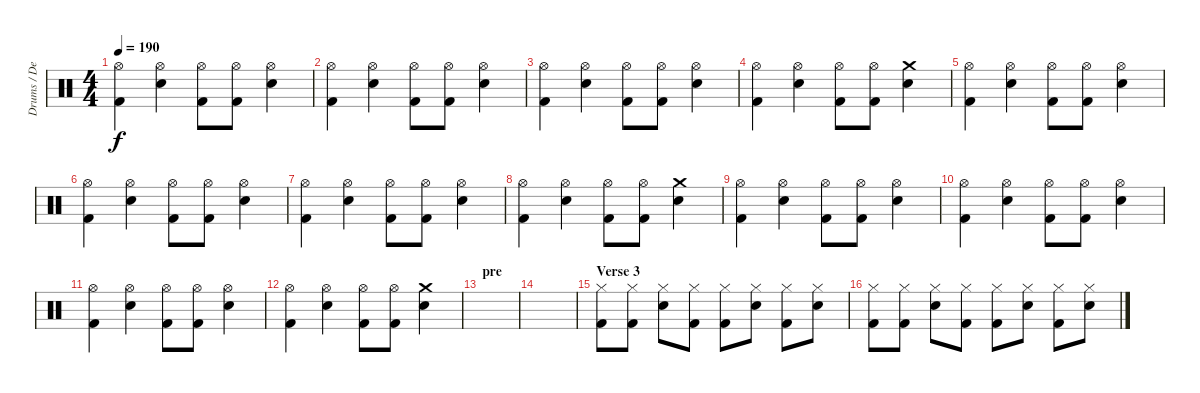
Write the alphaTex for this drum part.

\track ("Drums / Dennis" "Drums / De") {instrument percussion}
\staff {score}
\articulation defaults
\ts (4 4)
\tempo 190
\clef neutral
\ks c
("Kick (hit) 2" "Hi-Hat (open)").4{dy f} ("Snare (hit) 2" "Hi-Hat (open)").4 ("Kick (hit) 2" "Hi-Hat (open)").8 ("Kick (hit) 2" "Hi-Hat (open)").8 ("Snare (hit) 2" "Hi-Hat (open)").4 |
("Kick (hit) 2" "Hi-Hat (open)").4 ("Snare (hit) 2" "Hi-Hat (open)").4 ("Kick (hit) 2" "Hi-Hat (open)").8 ("Kick (hit) 2" "Hi-Hat (open)").8 ("Snare (hit) 2" "Hi-Hat (open)").4 |
("Kick (hit) 2" "Hi-Hat (open)").4 ("Snare (hit) 2" "Hi-Hat (open)").4 ("Kick (hit) 2" "Hi-Hat (open)").8 ("Kick (hit) 2" "Hi-Hat (open)").8 ("Snare (hit) 2" "Hi-Hat (open)").4 |
("Kick (hit) 2" "Hi-Hat (open)").4 ("Snare (hit) 2" "Hi-Hat (open)").4 ("Kick (hit) 2" "Hi-Hat (open)").8 ("Kick (hit) 2" "Hi-Hat (open)").8 ("Crash medium (hit)" "Snare (hit) 2").4 |
("Kick (hit) 2" "Hi-Hat (open)").4 ("Snare (hit) 2" "Hi-Hat (open)").4 ("Kick (hit) 2" "Hi-Hat (open)").8 ("Kick (hit) 2" "Hi-Hat (open)").8 ("Snare (hit) 2" "Hi-Hat (open)").4 |
("Kick (hit) 2" "Hi-Hat (open)").4 ("Snare (hit) 2" "Hi-Hat (open)").4 ("Kick (hit) 2" "Hi-Hat (open)").8 ("Kick (hit) 2" "Hi-Hat (open)").8 ("Snare (hit) 2" "Hi-Hat (open)").4 |
("Kick (hit) 2" "Hi-Hat (open)").4 ("Snare (hit) 2" "Hi-Hat (open)").4 ("Kick (hit) 2" "Hi-Hat (open)").8 ("Kick (hit) 2" "Hi-Hat (open)").8 ("Snare (hit) 2" "Hi-Hat (open)").4 |
("Kick (hit) 2" "Hi-Hat (open)").4 ("Snare (hit) 2" "Hi-Hat (open)").4 ("Kick (hit) 2" "Hi-Hat (open)").8 ("Kick (hit) 2" "Hi-Hat (open)").8 ("Crash medium (hit)" "Snare (hit) 2").4 |
("Kick (hit) 2" "Hi-Hat (open)").4 ("Snare (hit) 2" "Hi-Hat (open)").4 ("Kick (hit) 2" "Hi-Hat (open)").8 ("Kick (hit) 2" "Hi-Hat (open)").8 ("Snare (hit) 2" "Hi-Hat (open)").4 |
("Kick (hit) 2" "Hi-Hat (open)").4 ("Snare (hit) 2" "Hi-Hat (open)").4 ("Kick (hit) 2" "Hi-Hat (open)").8 ("Kick (hit) 2" "Hi-Hat (open)").8 ("Snare (hit) 2" "Hi-Hat (open)").4 |
("Kick (hit) 2" "Hi-Hat (open)").4 ("Snare (hit) 2" "Hi-Hat (open)").4 ("Kick (hit) 2" "Hi-Hat (open)").8 ("Kick (hit) 2" "Hi-Hat (open)").8 ("Snare (hit) 2" "Hi-Hat (open)").4 |
("Kick (hit) 2" "Hi-Hat (open)").4 ("Snare (hit) 2" "Hi-Hat (open)").4 ("Kick (hit) 2" "Hi-Hat (open)").8 ("Kick (hit) 2" "Hi-Hat (open)").8 ("Crash medium (hit)" "Snare (hit) 2").4 |
\section ("" "pre")
|
|
\section ("" "Verse 3")
("Kick (hit) 2" "Hi-Hat (closed)").8 ("Kick (hit) 2" "Hi-Hat (closed)").8 ("Snare (hit) 2" "Hi-Hat (closed)").8 ("Kick (hit) 2" "Hi-Hat (closed)").8 ("Kick (hit) 2" "Hi-Hat (closed)").8 ("Snare (hit) 2" "Hi-Hat (closed)").8 ("Kick (hit) 2" "Hi-Hat (closed)").8 ("Snare (hit) 2" "Hi-Hat (closed)").8 |
("Kick (hit) 2" "Hi-Hat (closed)").8 ("Kick (hit) 2" "Hi-Hat (closed)").8 ("Snare (hit) 2" "Hi-Hat (closed)").8 ("Kick (hit) 2" "Hi-Hat (closed)").8 ("Kick (hit) 2" "Hi-Hat (closed)").8 ("Snare (hit) 2" "Hi-Hat (closed)").8 ("Kick (hit) 2" "Hi-Hat (closed)").8 ("Snare (hit) 2" "Hi-Hat (closed)").8
